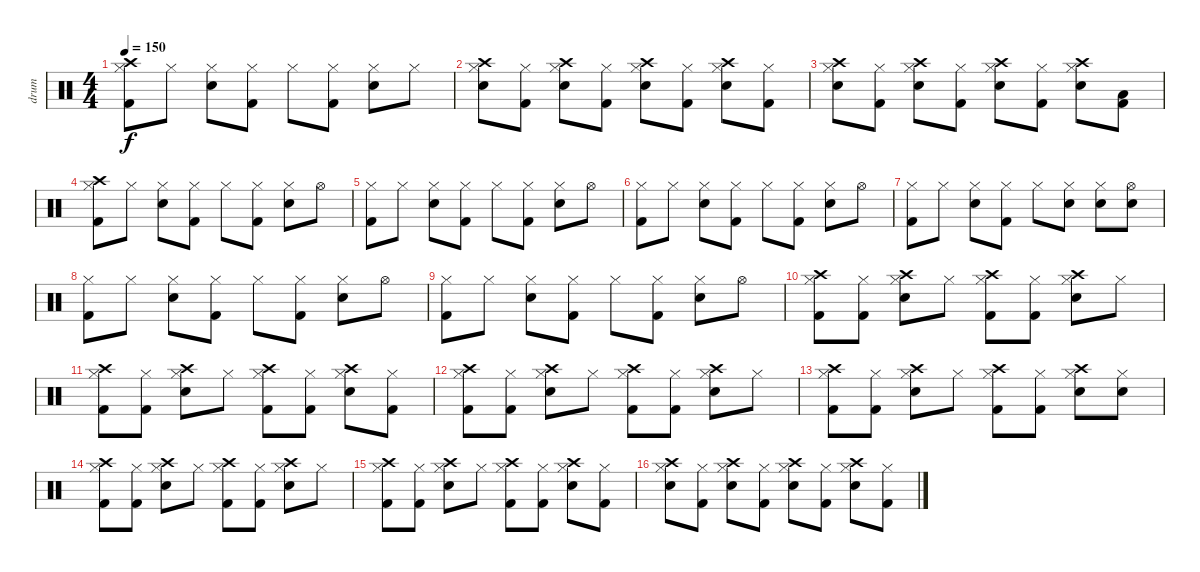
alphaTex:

\track ("drum" "drum") {instrument percussion}
\staff {score}
\articulation defaults
\ts (4 4)
\tempo 150
\clef neutral
\ks c
("Crash high (hit)" "Hi-Hat (closed)" "Kick (hit) 2").8{dy f} "Hi-Hat (closed)".8 ("Hi-Hat (closed)" "Electric Snare (hit)").8 ("Hi-Hat (closed)" "Kick (hit) 2").8 "Hi-Hat (closed)".8 ("Hi-Hat (closed)" "Kick (hit) 2").8 ("Hi-Hat (closed)" "Electric Snare (hit)").8 "Hi-Hat (closed)".8 |
("Crash high (hit)" "Hi-Hat (closed)" "Electric Snare (hit)").8 ("Hi-Hat (closed)" "Kick (hit) 2").8 ("Crash high (hit)" "Hi-Hat (closed)" "Electric Snare (hit)").8 ("Hi-Hat (closed)" "Kick (hit) 2").8 ("Crash high (hit)" "Hi-Hat (closed)" "Electric Snare (hit)").8 ("Hi-Hat (closed)" "Kick (hit) 2").8 ("Crash high (hit)" "Hi-Hat (closed)" "Electric Snare (hit)").8 ("Hi-Hat (closed)" "Kick (hit) 2").8 |
("Crash high (hit)" "Hi-Hat (closed)" "Electric Snare (hit)").8 ("Hi-Hat (closed)" "Kick (hit) 2").8 ("Crash high (hit)" "Hi-Hat (closed)" "Electric Snare (hit)").8 ("Hi-Hat (closed)" "Kick (hit) 2").8 ("Crash high (hit)" "Hi-Hat (closed)" "Electric Snare (hit)").8 ("Hi-Hat (closed)" "Kick (hit) 2").8 ("Crash high (hit)" "Hi-Hat (closed)" "Electric Snare (hit)").8 ("Low Floor Tom (hit)" "Kick (hit) 2").8 |
("Crash high (hit)" "Hi-Hat (closed)" "Kick (hit) 2").8 "Hi-Hat (closed)".8 ("Hi-Hat (closed)" "Electric Snare (hit)").8 ("Hi-Hat (closed)" "Kick (hit) 2").8 "Hi-Hat (closed)".8 ("Hi-Hat (closed)" "Kick (hit) 2").8 ("Hi-Hat (closed)" "Electric Snare (hit)").8 "Hi-Hat (open)".8 |
("Hi-Hat (closed)" "Kick (hit) 2").8 "Hi-Hat (closed)".8 ("Hi-Hat (closed)" "Electric Snare (hit)").8 ("Hi-Hat (closed)" "Kick (hit) 2").8 "Hi-Hat (closed)".8 ("Hi-Hat (closed)" "Kick (hit) 2").8 ("Hi-Hat (closed)" "Electric Snare (hit)").8 "Hi-Hat (open)".8 |
("Hi-Hat (closed)" "Kick (hit) 2").8 "Hi-Hat (closed)".8 ("Hi-Hat (closed)" "Electric Snare (hit)").8 ("Hi-Hat (closed)" "Kick (hit) 2").8 "Hi-Hat (closed)".8 ("Hi-Hat (closed)" "Kick (hit) 2").8 ("Hi-Hat (closed)" "Electric Snare (hit)").8 "Hi-Hat (open)".8 |
("Hi-Hat (closed)" "Kick (hit) 2").8 "Hi-Hat (closed)".8 ("Hi-Hat (closed)" "Electric Snare (hit)").8 ("Hi-Hat (closed)" "Kick (hit) 2").8 "Hi-Hat (closed)".8 ("Hi-Hat (closed)" "Electric Snare (hit)").8 ("Hi-Hat (closed)" "Electric Snare (hit)").8 ("Hi-Hat (open)" "Electric Snare (hit)").8 |
("Hi-Hat (closed)" "Kick (hit) 2").8 "Hi-Hat (closed)".8 ("Hi-Hat (closed)" "Electric Snare (hit)").8 ("Hi-Hat (closed)" "Kick (hit) 2").8 "Hi-Hat (closed)".8 ("Hi-Hat (closed)" "Kick (hit) 2").8 ("Hi-Hat (closed)" "Electric Snare (hit)").8 "Hi-Hat (open)".8 |
("Hi-Hat (closed)" "Kick (hit) 2").8 "Hi-Hat (closed)".8 ("Hi-Hat (closed)" "Electric Snare (hit)").8 ("Hi-Hat (closed)" "Kick (hit) 2").8 "Hi-Hat (closed)".8 ("Hi-Hat (closed)" "Kick (hit) 2").8 ("Hi-Hat (closed)" "Electric Snare (hit)").8 "Hi-Hat (open)".8 |
("Crash high (hit)" "Hi-Hat (closed)" "Kick (hit) 2").8 ("Hi-Hat (closed)" "Kick (hit) 2").8 ("Crash high (hit)" "Hi-Hat (closed)" "Electric Snare (hit)").8 "Hi-Hat (closed)".8 ("Crash high (hit)" "Hi-Hat (closed)" "Kick (hit) 2").8 ("Hi-Hat (closed)" "Kick (hit) 2").8 ("Crash high (hit)" "Hi-Hat (closed)" "Electric Snare (hit)").8 "Hi-Hat (closed)".8 |
("Crash high (hit)" "Hi-Hat (closed)" "Kick (hit) 2").8 ("Hi-Hat (closed)" "Kick (hit) 2").8 ("Crash high (hit)" "Hi-Hat (closed)" "Electric Snare (hit)").8 "Hi-Hat (closed)".8 ("Crash high (hit)" "Hi-Hat (closed)" "Kick (hit) 2").8 ("Hi-Hat (closed)" "Kick (hit) 2").8 ("Crash high (hit)" "Hi-Hat (closed)" "Electric Snare (hit)").8 ("Hi-Hat (closed)" "Kick (hit) 2").8 |
("Crash high (hit)" "Hi-Hat (closed)" "Kick (hit) 2").8 ("Hi-Hat (closed)" "Kick (hit) 2").8 ("Crash high (hit)" "Hi-Hat (closed)" "Electric Snare (hit)").8 "Hi-Hat (closed)".8 ("Crash high (hit)" "Hi-Hat (closed)" "Kick (hit) 2").8 ("Hi-Hat (closed)" "Kick (hit) 2").8 ("Crash high (hit)" "Hi-Hat (closed)" "Electric Snare (hit)").8 "Hi-Hat (closed)".8 |
("Crash high (hit)" "Hi-Hat (closed)" "Kick (hit) 2").8 ("Hi-Hat (closed)" "Kick (hit) 2").8 ("Crash high (hit)" "Hi-Hat (closed)" "Electric Snare (hit)").8 "Hi-Hat (closed)".8 ("Crash high (hit)" "Hi-Hat (closed)" "Kick (hit) 2").8 ("Hi-Hat (closed)" "Kick (hit) 2").8 ("Crash high (hit)" "Hi-Hat (closed)" "Electric Snare (hit)").8 ("Hi-Hat (closed)" "Electric Snare (hit)").8 |
("Crash high (hit)" "Hi-Hat (closed)" "Kick (hit) 2").8 ("Hi-Hat (closed)" "Kick (hit) 2").8 ("Crash high (hit)" "Hi-Hat (closed)" "Electric Snare (hit)").8 "Hi-Hat (closed)".8 ("Crash high (hit)" "Hi-Hat (closed)" "Kick (hit) 2").8 ("Hi-Hat (closed)" "Kick (hit) 2").8 ("Crash high (hit)" "Hi-Hat (closed)" "Electric Snare (hit)").8 "Hi-Hat (closed)".8 |
("Crash high (hit)" "Hi-Hat (closed)" "Kick (hit) 2").8 ("Hi-Hat (closed)" "Kick (hit) 2").8 ("Crash high (hit)" "Hi-Hat (closed)" "Electric Snare (hit)").8 "Hi-Hat (closed)".8 ("Crash high (hit)" "Hi-Hat (closed)" "Kick (hit) 2").8 ("Hi-Hat (closed)" "Kick (hit) 2").8 ("Crash high (hit)" "Hi-Hat (closed)" "Electric Snare (hit)").8 ("Hi-Hat (closed)" "Kick (hit) 2").8 |
("Crash high (hit)" "Hi-Hat (closed)" "Electric Snare (hit)").8 ("Hi-Hat (closed)" "Kick (hit) 2").8 ("Crash high (hit)" "Hi-Hat (closed)" "Electric Snare (hit)").8 ("Hi-Hat (closed)" "Kick (hit) 2").8 ("Crash high (hit)" "Hi-Hat (closed)" "Electric Snare (hit)").8 ("Hi-Hat (closed)" "Kick (hit) 2").8 ("Crash high (hit)" "Hi-Hat (closed)" "Electric Snare (hit)").8 ("Hi-Hat (closed)" "Kick (hit) 2").8
